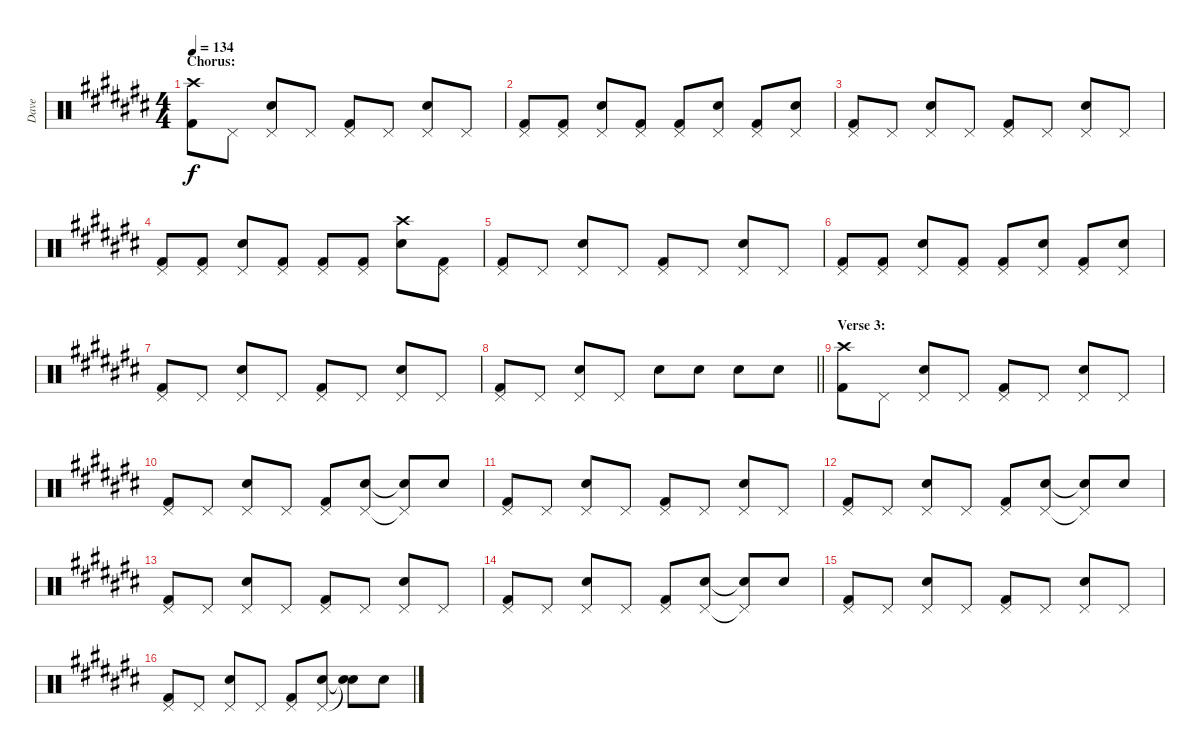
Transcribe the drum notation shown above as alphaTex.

\track ("Dave" "Dave") {instrument percussion}
\staff {score}
\articulation defaults
\ts (4 4)
\section ("" "Chorus:")
\tempo 134
\clef neutral
\ks c#
("Crash high (hit)" "Kick (hit) 2").8{dy f} "Pedal Hi-Hat (hit)".8 ("Pedal Hi-Hat (hit)" "Snare (hit) 2").8 "Pedal Hi-Hat (hit)".8 ("Pedal Hi-Hat (hit)" "Kick (hit) 2").8 "Pedal Hi-Hat (hit)".8 ("Pedal Hi-Hat (hit)" "Snare (hit) 2").8 "Pedal Hi-Hat (hit)".8 |
("Pedal Hi-Hat (hit)" "Kick (hit) 2").8 ("Pedal Hi-Hat (hit)" "Kick (hit) 2").8 ("Pedal Hi-Hat (hit)" "Snare (hit) 2").8 ("Pedal Hi-Hat (hit)" "Kick (hit) 2").8 ("Pedal Hi-Hat (hit)" "Kick (hit) 2").8 ("Pedal Hi-Hat (hit)" "Snare (hit) 2").8 ("Pedal Hi-Hat (hit)" "Kick (hit) 2").8 ("Pedal Hi-Hat (hit)" "Snare (hit) 2").8 |
("Pedal Hi-Hat (hit)" "Kick (hit) 2").8 "Pedal Hi-Hat (hit)".8 ("Pedal Hi-Hat (hit)" "Snare (hit) 2").8 "Pedal Hi-Hat (hit)".8 ("Pedal Hi-Hat (hit)" "Kick (hit) 2").8 "Pedal Hi-Hat (hit)".8 ("Pedal Hi-Hat (hit)" "Snare (hit) 2").8 "Pedal Hi-Hat (hit)".8 |
("Pedal Hi-Hat (hit)" "Kick (hit) 2").8 ("Pedal Hi-Hat (hit)" "Kick (hit) 2").8 ("Pedal Hi-Hat (hit)" "Snare (hit) 2").8 ("Pedal Hi-Hat (hit)" "Kick (hit) 2").8 ("Pedal Hi-Hat (hit)" "Kick (hit) 2").8 ("Pedal Hi-Hat (hit)" "Kick (hit) 2").8 ("Crash high (hit)" "Snare (hit) 2").8 ("Pedal Hi-Hat (hit)" "Kick (hit) 2").8 |
("Pedal Hi-Hat (hit)" "Kick (hit) 2").8 "Pedal Hi-Hat (hit)".8 ("Pedal Hi-Hat (hit)" "Snare (hit) 2").8 "Pedal Hi-Hat (hit)".8 ("Pedal Hi-Hat (hit)" "Kick (hit) 2").8 "Pedal Hi-Hat (hit)".8 ("Pedal Hi-Hat (hit)" "Snare (hit) 2").8 "Pedal Hi-Hat (hit)".8 |
("Pedal Hi-Hat (hit)" "Kick (hit) 2").8 ("Pedal Hi-Hat (hit)" "Kick (hit) 2").8 ("Pedal Hi-Hat (hit)" "Snare (hit) 2").8 ("Pedal Hi-Hat (hit)" "Kick (hit) 2").8 ("Pedal Hi-Hat (hit)" "Kick (hit) 2").8 ("Pedal Hi-Hat (hit)" "Snare (hit) 2").8 ("Pedal Hi-Hat (hit)" "Kick (hit) 2").8 ("Pedal Hi-Hat (hit)" "Snare (hit) 2").8 |
("Pedal Hi-Hat (hit)" "Kick (hit) 2").8 "Pedal Hi-Hat (hit)".8 ("Pedal Hi-Hat (hit)" "Snare (hit) 2").8 "Pedal Hi-Hat (hit)".8 ("Pedal Hi-Hat (hit)" "Kick (hit) 2").8 "Pedal Hi-Hat (hit)".8 ("Pedal Hi-Hat (hit)" "Snare (hit) 2").8 "Pedal Hi-Hat (hit)".8 |
\barLineRight lightlight
("Pedal Hi-Hat (hit)" "Kick (hit) 2").8 "Pedal Hi-Hat (hit)".8 ("Pedal Hi-Hat (hit)" "Snare (hit) 2").8 "Pedal Hi-Hat (hit)".8 "Snare (hit) 2".8 "Snare (hit) 2".8 "Snare (hit) 2".8 "Snare (hit) 2".8 |
\section ("" "Verse 3:")
("Crash high (hit)" "Kick (hit) 2").8 "Pedal Hi-Hat (hit)".8 ("Pedal Hi-Hat (hit)" "Snare (hit) 2").8 "Pedal Hi-Hat (hit)".8 ("Pedal Hi-Hat (hit)" "Kick (hit) 2").8 "Pedal Hi-Hat (hit)".8 ("Pedal Hi-Hat (hit)" "Snare (hit) 2").8 "Pedal Hi-Hat (hit)".8 |
("Pedal Hi-Hat (hit)" "Kick (hit) 2").8 "Pedal Hi-Hat (hit)".8 ("Pedal Hi-Hat (hit)" "Snare (hit) 2").8 "Pedal Hi-Hat (hit)".8 ("Pedal Hi-Hat (hit)" "Kick (hit) 2").8 ("Pedal Hi-Hat (hit)" "Snare (hit) 2").8 ("Pedal Hi-Hat (hit)"{t} "Snare (hit)"{t}).8 "Snare (hit) 2".8 |
("Pedal Hi-Hat (hit)" "Kick (hit) 2").8 "Pedal Hi-Hat (hit)".8 ("Pedal Hi-Hat (hit)" "Snare (hit) 2").8 "Pedal Hi-Hat (hit)".8 ("Pedal Hi-Hat (hit)" "Kick (hit) 2").8 "Pedal Hi-Hat (hit)".8 ("Pedal Hi-Hat (hit)" "Snare (hit) 2").8 "Pedal Hi-Hat (hit)".8 |
("Pedal Hi-Hat (hit)" "Kick (hit) 2").8 "Pedal Hi-Hat (hit)".8 ("Pedal Hi-Hat (hit)" "Snare (hit) 2").8 "Pedal Hi-Hat (hit)".8 ("Pedal Hi-Hat (hit)" "Kick (hit) 2").8 ("Pedal Hi-Hat (hit)" "Snare (hit) 2").8 ("Pedal Hi-Hat (hit)"{t} "Snare (hit)"{t}).8 "Snare (hit) 2".8 |
("Pedal Hi-Hat (hit)" "Kick (hit) 2").8 "Pedal Hi-Hat (hit)".8 ("Pedal Hi-Hat (hit)" "Snare (hit) 2").8 "Pedal Hi-Hat (hit)".8 ("Pedal Hi-Hat (hit)" "Kick (hit) 2").8 "Pedal Hi-Hat (hit)".8 ("Pedal Hi-Hat (hit)" "Snare (hit) 2").8 "Pedal Hi-Hat (hit)".8 |
("Pedal Hi-Hat (hit)" "Kick (hit) 2").8 "Pedal Hi-Hat (hit)".8 ("Pedal Hi-Hat (hit)" "Snare (hit) 2").8 "Pedal Hi-Hat (hit)".8 ("Pedal Hi-Hat (hit)" "Kick (hit) 2").8 ("Pedal Hi-Hat (hit)" "Snare (hit) 2").8 ("Pedal Hi-Hat (hit)"{t} "Snare (hit)"{t}).8 "Snare (hit) 2".8 |
("Pedal Hi-Hat (hit)" "Kick (hit) 2").8 "Pedal Hi-Hat (hit)".8 ("Pedal Hi-Hat (hit)" "Snare (hit) 2").8 "Pedal Hi-Hat (hit)".8 ("Pedal Hi-Hat (hit)" "Kick (hit) 2").8 "Pedal Hi-Hat (hit)".8 ("Pedal Hi-Hat (hit)" "Snare (hit) 2").8 "Pedal Hi-Hat (hit)".8 |
("Pedal Hi-Hat (hit)" "Kick (hit) 2").8 "Pedal Hi-Hat (hit)".8 ("Pedal Hi-Hat (hit)" "Snare (hit) 2").8 "Pedal Hi-Hat (hit)".8 ("Pedal Hi-Hat (hit)" "Kick (hit) 2").8 ("Pedal Hi-Hat (hit)" "Snare (hit) 2").8 ("Snare (hit)"{t} "Snare (hit) 2"{t}).8 "Snare (hit) 2".8
